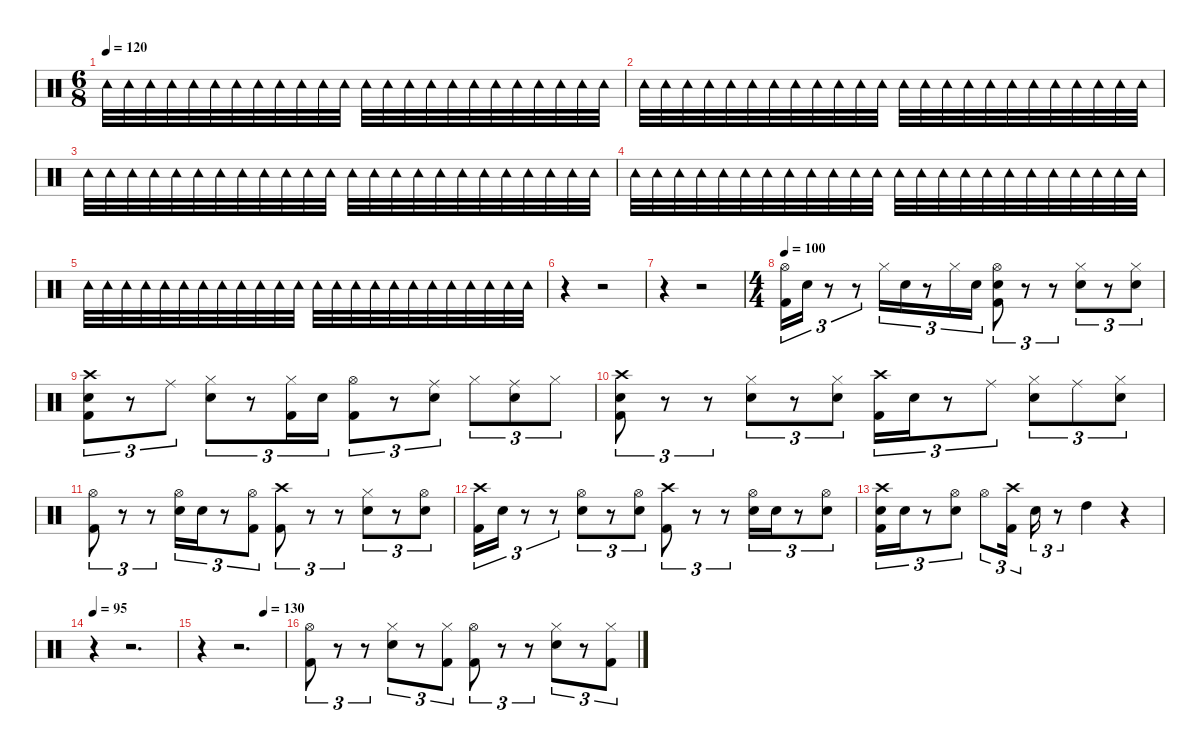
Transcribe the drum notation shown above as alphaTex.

\defaultSystemsLayout 4
\hideDynamics
\bracketExtendMode nobrackets
\singleTrackTrackNamePolicy hidden
\multiTrackTrackNamePolicy hidden
\firstSystemTrackNameMode fullname
\firstSystemTrackNameOrientation horizontal
\otherSystemsTrackNameOrientation horizontal
\track ("Drums" "drm.") {instrument percussion}
\staff {score}
\articulation defaults
\ts (6 8)
\tempo 120
\clef neutral
\ks c "Tambourine (hit)".32{dy mf beam Down} "Tambourine (hit)".32{beam Down} "Tambourine (hit)".32{beam Down} "Tambourine (hit)".32{beam Down} "Tambourine (hit)".32{beam Down} "Tambourine (hit)".32{beam Down} "Tambourine (hit)".32{beam Down} "Tambourine (hit)".32{beam Down} "Tambourine (hit)".32{beam Down} "Tambourine (hit)".32{beam Down} "Tambourine (hit)".32{beam Down} "Tambourine (hit)".32{beam Down} "Tambourine (hit)".32{beam Down} "Tambourine (hit)".32{beam Down} "Tambourine (hit)".32{beam Down} "Tambourine (hit)".32{beam Down} "Tambourine (hit)".32{beam Down} "Tambourine (hit)".32{beam Down} "Tambourine (hit)".32{beam Down} "Tambourine (hit)".32{beam Down} "Tambourine (hit)".32{beam Down} "Tambourine (hit)".32{beam Down} "Tambourine (hit)".32{beam Down} "Tambourine (hit)".32{beam Down}
|
"Tambourine (hit)".32{beam Down} "Tambourine (hit)".32{beam Down} "Tambourine (hit)".32{beam Down} "Tambourine (hit)".32{beam Down} "Tambourine (hit)".32{beam Down} "Tambourine (hit)".32{beam Down} "Tambourine (hit)".32{beam Down} "Tambourine (hit)".32{beam Down} "Tambourine (hit)".32{beam Down} "Tambourine (hit)".32{beam Down} "Tambourine (hit)".32{beam Down} "Tambourine (hit)".32{beam Down} "Tambourine (hit)".32{beam Down} "Tambourine (hit)".32{beam Down} "Tambourine (hit)".32{beam Down} "Tambourine (hit)".32{beam Down} "Tambourine (hit)".32{beam Down} "Tambourine (hit)".32{beam Down} "Tambourine (hit)".32{beam Down} "Tambourine (hit)".32{beam Down} "Tambourine (hit)".32{beam Down} "Tambourine (hit)".32{beam Down} "Tambourine (hit)".32{beam Down} "Tambourine (hit)".32{beam Down} |
"Tambourine (hit)".32{beam Down} "Tambourine (hit)".32{beam Down} "Tambourine (hit)".32{beam Down} "Tambourine (hit)".32{beam Down} "Tambourine (hit)".32{beam Down} "Tambourine (hit)".32{beam Down} "Tambourine (hit)".32{beam Down} "Tambourine (hit)".32{beam Down} "Tambourine (hit)".32{beam Down} "Tambourine (hit)".32{beam Down} "Tambourine (hit)".32{beam Down} "Tambourine (hit)".32{beam Down} "Tambourine (hit)".32{beam Down} "Tambourine (hit)".32{beam Down} "Tambourine (hit)".32{beam Down} "Tambourine (hit)".32{beam Down} "Tambourine (hit)".32{beam Down} "Tambourine (hit)".32{beam Down} "Tambourine (hit)".32{beam Down} "Tambourine (hit)".32{beam Down} "Tambourine (hit)".32{beam Down} "Tambourine (hit)".32{beam Down} "Tambourine (hit)".32{beam Down} "Tambourine (hit)".32{beam Down} |
"Tambourine (hit)".32{beam Down} "Tambourine (hit)".32{beam Down} "Tambourine (hit)".32{beam Down} "Tambourine (hit)".32{beam Down} "Tambourine (hit)".32{beam Down} "Tambourine (hit)".32{beam Down} "Tambourine (hit)".32{beam Down} "Tambourine (hit)".32{beam Down} "Tambourine (hit)".32{beam Down} "Tambourine (hit)".32{beam Down} "Tambourine (hit)".32{beam Down} "Tambourine (hit)".32{beam Down} "Tambourine (hit)".32{beam Down} "Tambourine (hit)".32{beam Down} "Tambourine (hit)".32{beam Down} "Tambourine (hit)".32{beam Down} "Tambourine (hit)".32{beam Down} "Tambourine (hit)".32{beam Down} "Tambourine (hit)".32{beam Down} "Tambourine (hit)".32{beam Down} "Tambourine (hit)".32{beam Down} "Tambourine (hit)".32{beam Down} "Tambourine (hit)".32{beam Down} "Tambourine (hit)".32{beam Down} |
"Tambourine (hit)".32{beam Down} "Tambourine (hit)".32{beam Down} "Tambourine (hit)".32{beam Down} "Tambourine (hit)".32{beam Down} "Tambourine (hit)".32{beam Down} "Tambourine (hit)".32{beam Down} "Tambourine (hit)".32{beam Down} "Tambourine (hit)".32{beam Down} "Tambourine (hit)".32{beam Down} "Tambourine (hit)".32{beam Down} "Tambourine (hit)".32{beam Down} "Tambourine (hit)".32{beam Down} "Tambourine (hit)".32{beam Down} "Tambourine (hit)".32{beam Down} "Tambourine (hit)".32{beam Down} "Tambourine (hit)".32{beam Down} "Tambourine (hit)".32{beam Down} "Tambourine (hit)".32{beam Down} "Tambourine (hit)".32{beam Down} "Tambourine (hit)".32{beam Down} "Tambourine (hit)".32{beam Down} "Tambourine (hit)".32{beam Down} "Tambourine (hit)".32{beam Down} "Tambourine (hit)".32{beam Down} |
r.4{beam Down} r.2{beam Down} |
r.4{beam Down} r.2{beam Down} |
\ts (4 4)
\tempo 100
("Hi-Hat (open)" "Kick (hit) 2").16{tu (3 2) dy f beam Down} "Snare (hit) 2".16{tu (3 2) dy mf beam Down} r.8{tu (3 2) beam Down} r.8{tu (3 2) beam Down} "Hi-Hat (closed)".16{tu (3 2) dy f beam Down} "Snare (hit) 2".16{tu (3 2) dy mf beam Down} r.8{tu (3 2) beam Down} "Hi-Hat (closed)".16{tu (3 2) dy f beam Down} "Snare (hit) 2".16{tu (3 2) dy mf beam Down} ("Hi-Hat (open)" "Snare (hit) 2" "Kick (hit) 2").8{tu (3 2) dy f beam Down} r.8{tu (3 2) beam Down} r.8{tu (3 2) beam Down} ("Hi-Hat (closed)" "Snare (hit) 2").8{tu (3 2) beam Down} r.8{tu (3 2) beam Down} ("Hi-Hat (closed)" "Snare (hit) 2").8{tu (3 2) beam Down} |
("Crash high (hit)" "Snare (hit) 2" "Kick (hit) 2").8{tu (3 2) dy ff beam Down} r.8{tu (3 2) beam Down} "Ride (middle)".8{tu (3 2) dy f beam Down} ("Hi-Hat (closed)" "Snare (hit) 2").8{tu (3 2) beam Down} r.8{tu (3 2) beam Down} ("Hi-Hat (closed)" "Kick (hit) 2").16{tu (3 2) beam Down} "Snare (hit) 2".16{tu (3 2) beam Down} ("Hi-Hat (open)" "Kick (hit) 2").8{tu (3 2) beam Down} r.8{tu (3 2) beam Down} ("Ride (middle)" "Snare (hit) 2").8{tu (3 2) dy ff beam Down} "Hi-Hat (closed)".8{tu (3 2) dy f beam Down} ("Ride (middle)" "Snare (hit) 2").8{tu (3 2) dy ff beam Down} "Hi-Hat (closed)".8{tu (3 2) dy f beam Down} |
("Crash high (hit)" "Snare (hit) 2" "Kick (hit) 2").8{tu (3 2) beam Down} r.8{tu (3 2) beam Down} r.8{tu (3 2) beam Down} ("Hi-Hat (closed)" "Snare (hit) 2").8{tu (3 2) beam Down} r.8{tu (3 2) beam Down} ("Hi-Hat (closed)" "Snare (hit) 2").8{tu (3 2) beam Down} ("Crash high (hit)" "Kick (hit) 2").16{tu (3 2) beam Down} "Snare (hit) 2".16{tu (3 2) dy mp beam Down} r.8{tu (3 2) beam Down} "Ride (middle)".8{tu (3 2) dy f beam Down} ("Hi-Hat (closed)" "Snare (hit) 2").8{tu (3 2) beam Down} "Ride (middle)".8{tu (3 2) beam Down} ("Hi-Hat (closed)" "Snare (hit) 2").8{tu (3 2) beam Down} |
("Hi-Hat (open)" "Kick (hit) 2").8{tu (3 2) beam Down} r.8{tu (3 2) beam Down} r.8{tu (3 2) beam Down} ("Hi-Hat (open)" "Snare (hit) 2").16{tu (3 2) beam Down} "Snare (hit) 2".16{tu (3 2) dy mp beam Down} r.8{tu (3 2) beam Down} ("Hi-Hat (open)" "Kick (hit) 2").8{tu (3 2) dy f beam Down} ("Crash high (hit)" "Kick (hit) 2").8{tu (3 2) beam Down} r.8{tu (3 2) beam Down} r.8{tu (3 2) beam Down} ("Hi-Hat (closed)" "Snare (hit) 2").8{tu (3 2) beam Down} r.8{tu (3 2) beam Down} ("Hi-Hat (open)" "Snare (hit) 2").8{tu (3 2) beam Down} |
("Crash high (hit)" "Kick (hit) 2").16{tu (3 2) beam Down} "Snare (hit) 2".16{tu (3 2) beam Down} r.8{tu (3 2) beam Down} r.8{tu (3 2) beam Down} ("Hi-Hat (open)" "Snare (hit) 2").8{tu (3 2) beam Down} r.8{tu (3 2) beam Down} ("Hi-Hat (open)" "Snare (hit) 2").8{tu (3 2) beam Down} ("Crash high (hit)" "Kick (hit) 2").8{tu (3 2) beam Down} r.8{tu (3 2) beam Down} r.8{tu (3 2) beam Down} ("Hi-Hat (open)" "Snare (hit) 2").16{tu (3 2) beam Down} "Snare (hit) 2".16{tu (3 2) dy mp beam Down} r.8{tu (3 2) beam Down} ("Hi-Hat (open)" "Snare (hit) 2").8{tu (3 2) dy f beam Down} |
("Crash high (hit)" "Snare (hit) 2" "Kick (hit) 2").16{tu (3 2) beam Down} "Snare (hit) 2".16{tu (3 2) dy mf beam Down} r.8{tu (3 2) beam Down} ("Hi-Hat (open)" "Snare (hit) 2").8{tu (3 2) dy f beam Down} "Hi-Hat (open)".8{tu (3 2) beam Down} ("Crash high (hit)" "Kick (hit) 2").16{tu (3 2) beam Down} "Snare (hit) 2".16{tu (3 2) beam Down} r.8{tu (3 2) beam Down} "High Tom (hit)".4{beam Down} r.4{beam Down} |
\tempo 95
r.4{beam Down} r.2{d beam Down} |
\tempo (130 0.75)
r.4{beam Down} r.2{d beam Down} |
("Hi-Hat (open)" "Kick (hit) 2").8{tu (3 2) beam Down} r.8{tu (3 2) beam Down} r.8{tu (3 2) beam Down} ("Hi-Hat (closed)" "Snare (hit) 2").8{tu (3 2) beam Down} r.8{tu (3 2) beam Down} ("Hi-Hat (closed)" "Kick (hit) 2").8{tu (3 2) beam Down} ("Hi-Hat (open)" "Kick (hit) 2").8{tu (3 2) beam Down} r.8{tu (3 2) beam Down} r.8{tu (3 2) beam Down} ("Hi-Hat (closed)" "Snare (hit) 2").8{tu (3 2) beam Down} r.8{tu (3 2) beam Down} ("Hi-Hat (closed)" "Kick (hit) 2").8{tu (3 2) beam Down}
